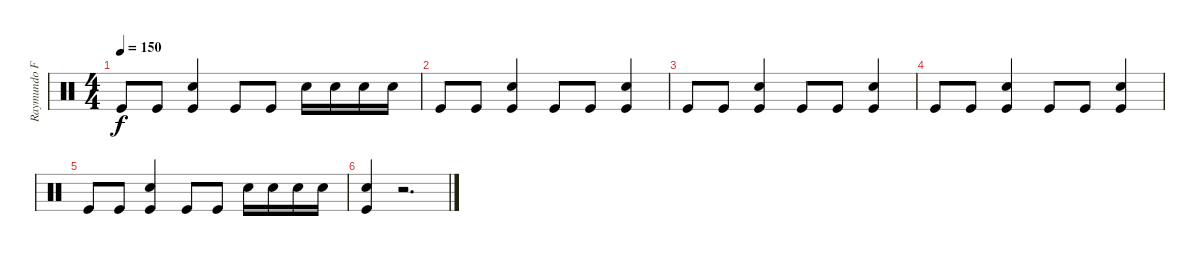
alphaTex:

\track ("Raymundo Fajardo" "Raymundo F") {instrument percussion}
\staff {score}
\articulation defaults
\ts (4 4)
\tempo 150
\clef neutral
\ks c "Kick (hit)".8{dy f} "Kick (hit)".8
("Kick (hit)" "Electric Snare (hit)").4 "Kick (hit)".8 "Kick (hit)".8 "Electric Snare (hit)".16 "Electric Snare (hit)".16 "Electric Snare (hit)".16 "Electric Snare (hit)".16 |
"Kick (hit)".8 "Kick (hit)".8 ("Kick (hit)" "Electric Snare (hit)").4 "Kick (hit)".8 "Kick (hit)".8 ("Kick (hit)" "Electric Snare (hit)").4 |
"Kick (hit)".8 "Kick (hit)".8 ("Kick (hit)" "Electric Snare (hit)").4 "Kick (hit)".8 "Kick (hit)".8 ("Kick (hit)" "Electric Snare (hit)").4 |
"Kick (hit)".8 "Kick (hit)".8 ("Kick (hit)" "Electric Snare (hit)").4 "Kick (hit)".8 "Kick (hit)".8 ("Kick (hit)" "Electric Snare (hit)").4 |
"Kick (hit)".8 "Kick (hit)".8 ("Kick (hit)" "Electric Snare (hit)").4 "Kick (hit)".8 "Kick (hit)".8 "Electric Snare (hit)".16 "Electric Snare (hit)".16 "Electric Snare (hit)".16 "Electric Snare (hit)".16 |
("Electric Snare (hit)" "Kick (hit)").4 r.2{d}
